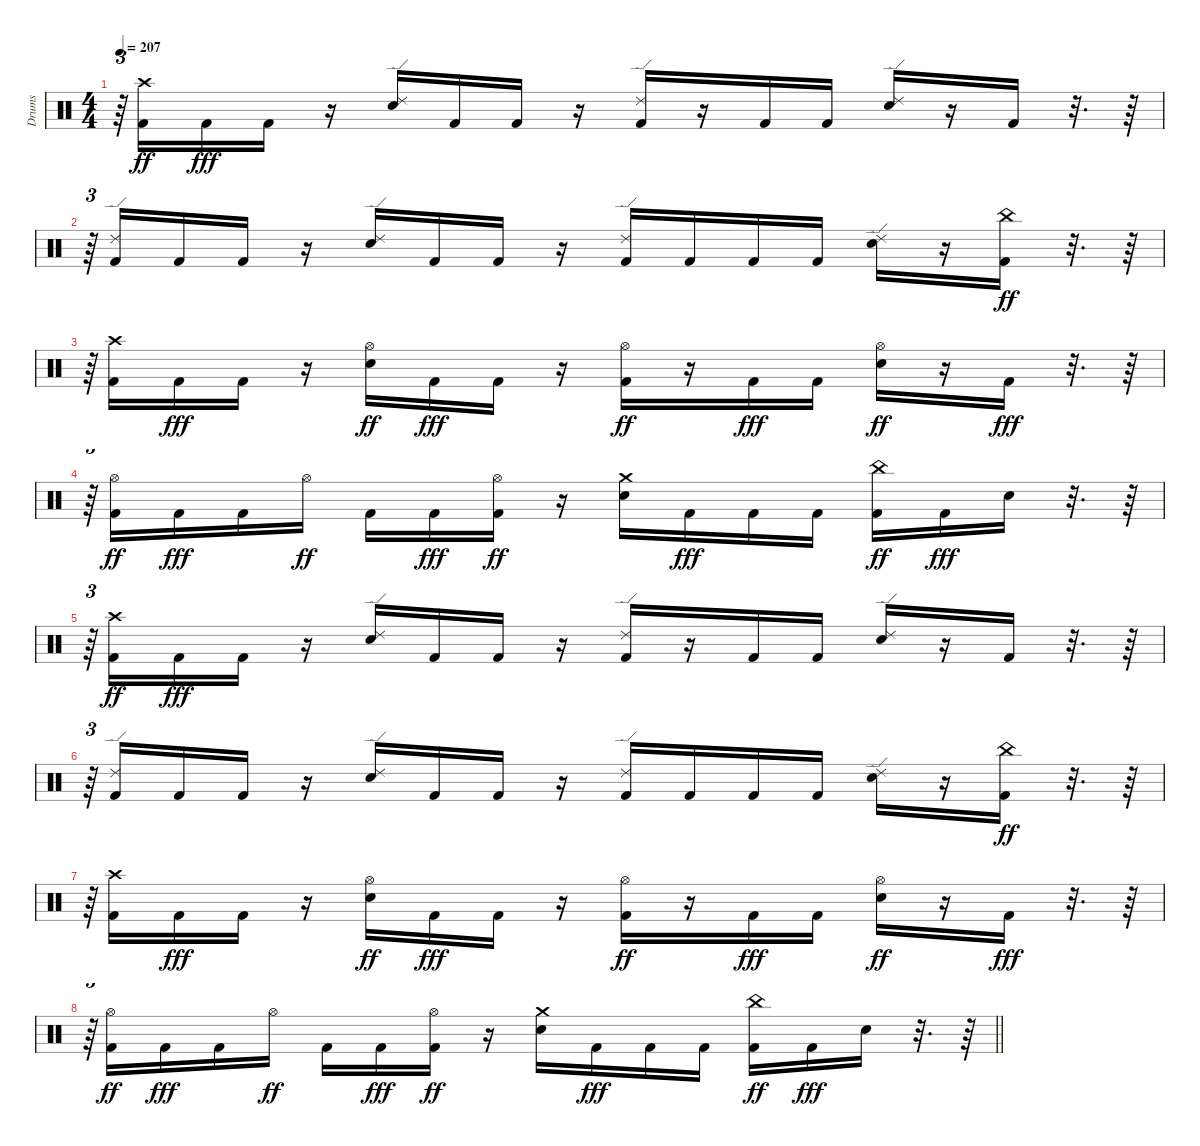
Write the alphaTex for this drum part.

\track ("Drums" "Drums") {instrument percussion}
\staff {score}
\articulation defaults
\ts (4 4)
\tempo 207
\clef neutral
\ks c
r.64{tu (3 2) dy fff} ("Kick (hit) 2" "Crash high (hit)").16{dy ff} "Kick (hit) 2".16{dy fff} "Kick (hit) 2".16 r.16 ("Snare (hit) 2" "Ride (edge) 2").16 "Kick (hit) 2".16 "Kick (hit) 2".16 r.16 ("Kick (hit) 2" "Ride (edge) 2").16 r.16 "Kick (hit) 2".16 "Kick (hit) 2".16 ("Snare (hit) 2" "Ride (edge) 2").16 r.16 "Kick (hit) 2".16 r.32{d} r.64 |
r.64{tu (3 2)} ("Kick (hit) 2" "Ride (edge) 2").16 "Kick (hit) 2".16 "Kick (hit) 2".16 r.16 ("Snare (hit) 2" "Ride (edge) 2").16 "Kick (hit) 2".16 "Kick (hit) 2".16 r.16 ("Kick (hit) 2" "Ride (edge) 2").16 "Kick (hit) 2".16 "Kick (hit) 2".16 "Kick (hit) 2".16 ("Snare (hit) 2" "Ride (edge) 2").16 r.16 ("Kick (hit) 2" "China (hit)").16{dy ff} r.32{d} r.64 |
r.64{tu (3 2)} ("Kick (hit) 2" "Crash high (hit)").16 "Kick (hit) 2".16{dy fff} "Kick (hit) 2".16 r.16 ("Snare (hit) 2" "Hi-Hat (open)").16{dy ff} "Kick (hit) 2".16{dy fff} "Kick (hit) 2".16 r.16 ("Kick (hit) 2" "Hi-Hat (open)").16{dy ff} r.16 "Kick (hit) 2".16{dy fff} "Kick (hit) 2".16 ("Snare (hit) 2" "Hi-Hat (open)").16{dy ff} r.16 "Kick (hit) 2".16{dy fff} r.32{d} r.64 |
r.64{tu (3 2)} ("Kick (hit) 2" "Hi-Hat (open)").16{dy ff} "Kick (hit) 2".16{dy fff} "Kick (hit) 2".16 "Hi-Hat (open)".16{dy ff} "Kick (hit) 2".16 "Kick (hit) 2".16{dy fff} ("Kick (hit) 2" "Hi-Hat (open)").16{dy ff} r.16 ("Snare (hit) 2" "Crash medium (hit)").16 "Kick (hit) 2".16{dy fff} "Kick (hit) 2".16 "Kick (hit) 2".16 ("Kick (hit) 2" "China (hit)").16{dy ff} "Kick (hit) 2".16{dy fff} "Snare (hit) 2".16 r.32{d} r.64 |
r.64{tu (3 2)} ("Kick (hit) 2" "Crash high (hit)").16{dy ff} "Kick (hit) 2".16{dy fff} "Kick (hit) 2".16 r.16 ("Snare (hit) 2" "Ride (edge) 2").16 "Kick (hit) 2".16 "Kick (hit) 2".16 r.16 ("Kick (hit) 2" "Ride (edge) 2").16 r.16 "Kick (hit) 2".16 "Kick (hit) 2".16 ("Snare (hit) 2" "Ride (edge) 2").16 r.16 "Kick (hit) 2".16 r.32{d} r.64 |
r.64{tu (3 2)} ("Kick (hit) 2" "Ride (edge) 2").16 "Kick (hit) 2".16 "Kick (hit) 2".16 r.16 ("Snare (hit) 2" "Ride (edge) 2").16 "Kick (hit) 2".16 "Kick (hit) 2".16 r.16 ("Kick (hit) 2" "Ride (edge) 2").16 "Kick (hit) 2".16 "Kick (hit) 2".16 "Kick (hit) 2".16 ("Snare (hit) 2" "Ride (edge) 2").16 r.16 ("Kick (hit) 2" "China (hit)").16{dy ff} r.32{d} r.64 |
r.64{tu (3 2)} ("Kick (hit) 2" "Crash high (hit)").16 "Kick (hit) 2".16{dy fff} "Kick (hit) 2".16 r.16 ("Snare (hit) 2" "Hi-Hat (open)").16{dy ff} "Kick (hit) 2".16{dy fff} "Kick (hit) 2".16 r.16 ("Kick (hit) 2" "Hi-Hat (open)").16{dy ff} r.16 "Kick (hit) 2".16{dy fff} "Kick (hit) 2".16 ("Snare (hit) 2" "Hi-Hat (open)").16{dy ff} r.16 "Kick (hit) 2".16{dy fff} r.32{d} r.64 |
\barLineRight lightlight
r.64{tu (3 2)} ("Kick (hit) 2" "Hi-Hat (open)").16{dy ff} "Kick (hit) 2".16{dy fff} "Kick (hit) 2".16 "Hi-Hat (open)".16{dy ff} "Kick (hit) 2".16 "Kick (hit) 2".16{dy fff} ("Kick (hit) 2" "Hi-Hat (open)").16{dy ff} r.16 ("Snare (hit) 2" "Crash medium (hit)").16 "Kick (hit) 2".16{dy fff} "Kick (hit) 2".16 "Kick (hit) 2".16 ("Kick (hit) 2" "China (hit)").16{dy ff} "Kick (hit) 2".16{dy fff} "Snare (hit) 2".16 r.32{d} r.64
